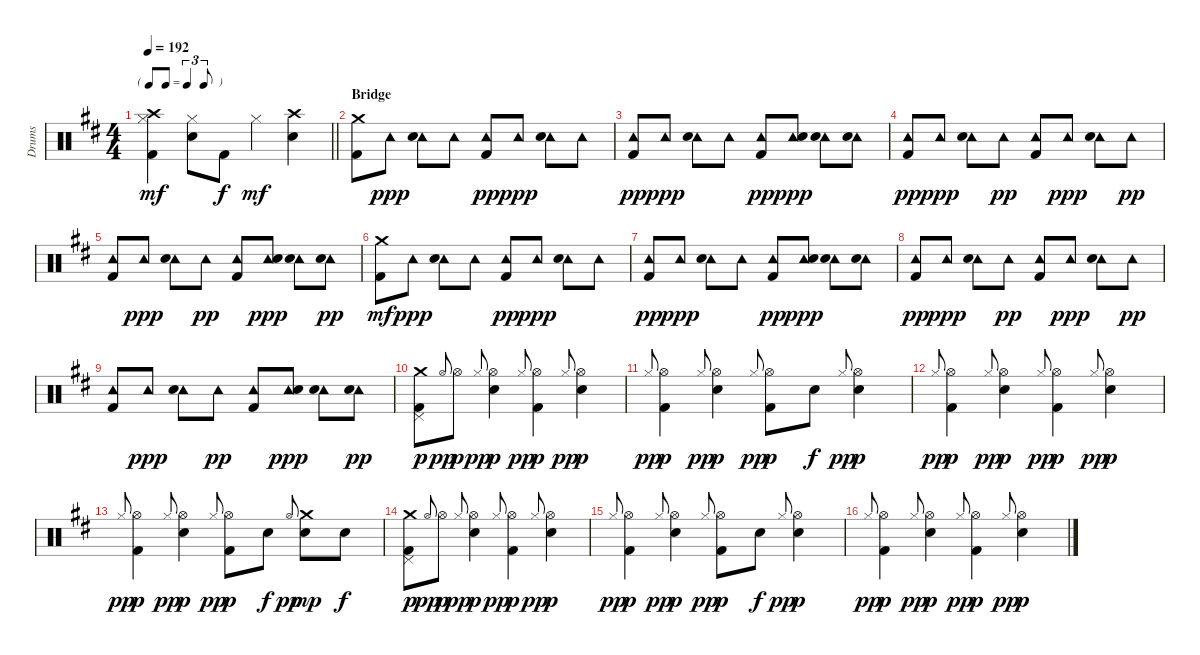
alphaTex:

\track ("Drums" "Drums") {instrument percussion}
\staff {score}
\articulation defaults
\ts (4 4)
\tf triplet8th
\tempo 192
\clef neutral
\barLineRight lightlight
\ks bminor
("Hi-Hat (closed)" "Crash high (hit)" "Kick (hit) 2").4{dy mf} ("Hi-Hat (closed)" "Snare (hit) 2").8 "Kick (hit) 2".8{dy f} "Hi-Hat (closed)".4{dy mf} ("Crash high (hit)" "Snare (hit) 2").4 |
\section ("" "Bridge")
("Crash medium (hit)" "Kick (hit) 2").8 "Tambourine (hit)".8{dy ppp} ("Tambourine (hit)" "Snare (hit) 2").8 "Tambourine (hit)".8 ("Tambourine (hit)" "Kick (hit) 2").8{dy pp} "Tambourine (hit)".8{dy ppp} ("Tambourine (hit)" "Snare (hit) 2").8 "Tambourine (hit)".8 |
("Tambourine (hit)" "Kick (hit) 2").8{dy pp} "Tambourine (hit)".8{dy ppp} ("Tambourine (hit)" "Snare (hit) 2").8 "Tambourine (hit)".8 ("Tambourine (hit)" "Kick (hit) 2").8{dy pp} ("Tambourine (hit)" "Snare (hit) 2").8{dy ppp} ("Tambourine (hit)" "Snare (hit) 2").8 ("Tambourine (hit)" "Snare (hit) 2").8 |
("Tambourine (hit)" "Kick (hit) 2").8{dy pp} "Tambourine (hit)".8{dy ppp} ("Tambourine (hit)" "Snare (hit) 2").8 "Tambourine (hit)".8{dy pp} ("Tambourine (hit)" "Kick (hit) 2").8 "Tambourine (hit)".8{dy ppp} ("Tambourine (hit)" "Snare (hit) 2").8 "Tambourine (hit)".8{dy pp} |
("Tambourine (hit)" "Kick (hit) 2").8 "Tambourine (hit)".8{dy ppp} ("Tambourine (hit)" "Snare (hit) 2").8 "Tambourine (hit)".8{dy pp} ("Tambourine (hit)" "Kick (hit) 2").8 ("Tambourine (hit)" "Snare (hit) 2").8{dy ppp} ("Tambourine (hit)" "Snare (hit) 2").8 ("Tambourine (hit)" "Snare (hit) 2").8{dy pp} |
("Crash medium (hit)" "Kick (hit) 2").8{dy mf} "Tambourine (hit)".8{dy ppp} ("Tambourine (hit)" "Snare (hit) 2").8 "Tambourine (hit)".8 ("Tambourine (hit)" "Kick (hit) 2").8{dy pp} "Tambourine (hit)".8{dy ppp} ("Tambourine (hit)" "Snare (hit) 2").8 "Tambourine (hit)".8 |
("Tambourine (hit)" "Kick (hit) 2").8{dy pp} "Tambourine (hit)".8{dy ppp} ("Tambourine (hit)" "Snare (hit) 2").8 "Tambourine (hit)".8 ("Tambourine (hit)" "Kick (hit) 2").8{dy pp} ("Tambourine (hit)" "Snare (hit) 2").8{dy ppp} ("Tambourine (hit)" "Snare (hit) 2").8 ("Tambourine (hit)" "Snare (hit) 2").8 |
("Tambourine (hit)" "Kick (hit) 2").8{dy pp} "Tambourine (hit)".8{dy ppp} ("Tambourine (hit)" "Snare (hit) 2").8 "Tambourine (hit)".8{dy pp} ("Tambourine (hit)" "Kick (hit) 2").8 "Tambourine (hit)".8{dy ppp} ("Tambourine (hit)" "Snare (hit) 2").8 "Tambourine (hit)".8{dy pp} |
("Tambourine (hit)" "Kick (hit) 2").8 "Tambourine (hit)".8{dy ppp} ("Tambourine (hit)" "Snare (hit) 2").8 "Tambourine (hit)".8{dy pp} ("Tambourine (hit)" "Kick (hit) 2").8 ("Tambourine (hit)" "Snare (hit) 2").8{dy ppp} ("Tambourine (hit)" "Snare (hit) 2").8 ("Tambourine (hit)" "Snare (hit) 2").8{dy pp} |
("Crash medium (hit)" "Pedal Hi-Hat (hit)" "Kick (hit) 2").8{dy p} "Hi-Hat (open)".8{gr onbeat dy pp} "Hi-Hat (open)".8{dy p} "Hi-Hat (closed)".8{gr onbeat dy pp} ("Hi-Hat (open)" "Snare (hit) 2").4{dy p} "Hi-Hat (closed)".8{gr onbeat dy pp} ("Hi-Hat (open)" "Kick (hit) 2").4{dy p} "Hi-Hat (closed)".8{gr onbeat dy pp} ("Hi-Hat (open)" "Snare (hit) 2").4{dy p} |
"Hi-Hat (closed)".8{gr onbeat dy pp} ("Hi-Hat (open)" "Kick (hit) 2").4{dy p} "Hi-Hat (closed)".8{gr onbeat dy pp} ("Hi-Hat (open)" "Snare (hit) 2").4{dy p} "Hi-Hat (closed)".8{gr onbeat dy pp} ("Hi-Hat (open)" "Kick (hit) 2").8{dy p} "Snare (hit) 2".8{dy f} "Hi-Hat (closed)".8{gr onbeat dy pp} ("Hi-Hat (open)" "Snare (hit) 2").4{dy p} |
"Hi-Hat (closed)".8{gr onbeat dy pp} ("Hi-Hat (open)" "Kick (hit) 2").4{dy p} "Hi-Hat (closed)".8{gr onbeat dy pp} ("Hi-Hat (open)" "Snare (hit) 2").4{dy p} "Hi-Hat (closed)".8{gr onbeat dy pp} ("Hi-Hat (open)" "Kick (hit) 2").4{dy p} "Hi-Hat (closed)".8{gr onbeat dy pp} ("Hi-Hat (open)" "Snare (hit) 2").4{dy p} |
"Hi-Hat (closed)".8{gr onbeat dy pp} ("Hi-Hat (open)" "Kick (hit) 2").4{dy p} "Hi-Hat (closed)".8{gr onbeat dy pp} ("Hi-Hat (open)" "Snare (hit) 2").4{dy p} "Hi-Hat (closed)".8{gr onbeat dy pp} ("Hi-Hat (open)" "Kick (hit) 2").8{dy p} "Snare (hit) 2".8{dy f} "Hi-Hat (open)".8{gr onbeat dy pp} ("Crash medium (hit)" "Snare (hit) 2").8{dy mp} "Snare (hit) 2".8{dy f} |
("Crash medium (hit)" "Pedal Hi-Hat (hit)" "Kick (hit) 2").8{dy p} "Hi-Hat (open)".8{gr onbeat dy pp} "Hi-Hat (open)".8{dy p} "Hi-Hat (closed)".8{gr onbeat dy pp} ("Hi-Hat (open)" "Snare (hit) 2").4{dy p} "Hi-Hat (closed)".8{gr onbeat dy pp} ("Hi-Hat (open)" "Kick (hit) 2").4{dy p} "Hi-Hat (closed)".8{gr onbeat dy pp} ("Hi-Hat (open)" "Snare (hit) 2").4{dy p} |
"Hi-Hat (closed)".8{gr onbeat dy pp} ("Hi-Hat (open)" "Kick (hit) 2").4{dy p} "Hi-Hat (closed)".8{gr onbeat dy pp} ("Hi-Hat (open)" "Snare (hit) 2").4{dy p} "Hi-Hat (closed)".8{gr onbeat dy pp} ("Hi-Hat (open)" "Kick (hit) 2").8{dy p} "Snare (hit) 2".8{dy f} "Hi-Hat (closed)".8{gr onbeat dy pp} ("Hi-Hat (open)" "Snare (hit) 2").4{dy p} |
"Hi-Hat (closed)".8{gr onbeat dy pp} ("Hi-Hat (open)" "Kick (hit) 2").4{dy p} "Hi-Hat (closed)".8{gr onbeat dy pp} ("Hi-Hat (open)" "Snare (hit) 2").4{dy p} "Hi-Hat (closed)".8{gr onbeat dy pp} ("Hi-Hat (open)" "Kick (hit) 2").4{dy p} "Hi-Hat (closed)".8{gr onbeat dy pp} ("Hi-Hat (open)" "Snare (hit) 2").4{dy p}
